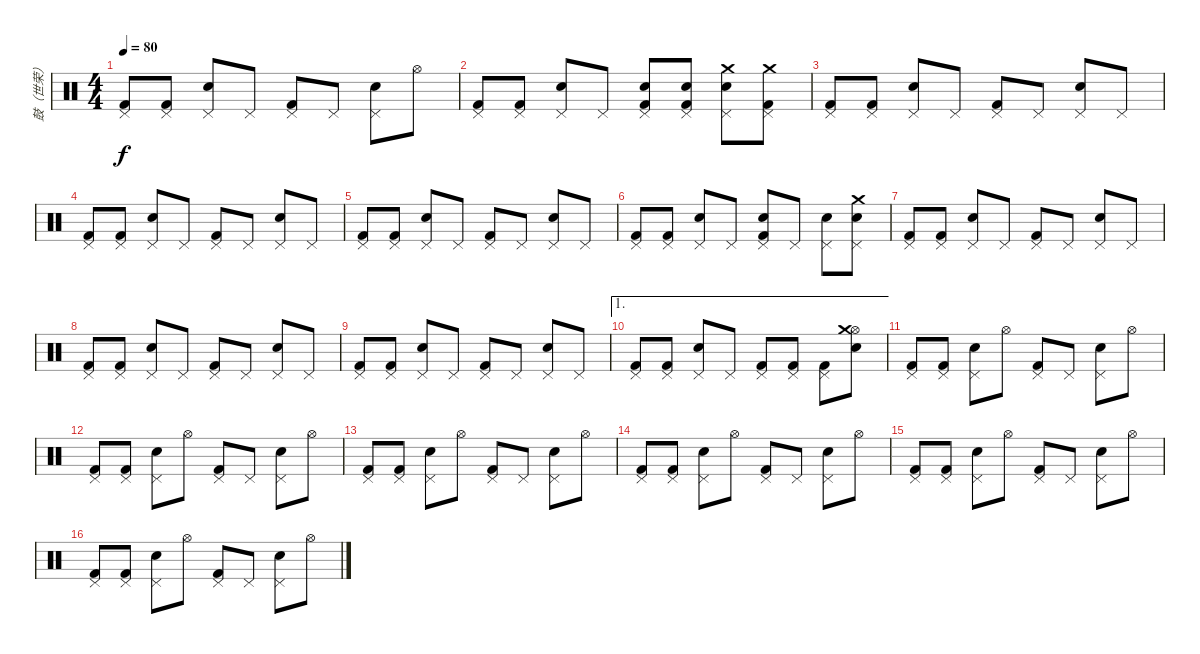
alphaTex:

\track ("鼓（世荣）" "鼓（世荣）") {instrument percussion}
\staff {score}
\articulation defaults
\ts (4 4)
\tempo 80
\clef neutral
\ks c
("Pedal Hi-Hat (hit)" "Kick (hit) 2").8{dy f} ("Pedal Hi-Hat (hit)" "Kick (hit) 2").8 ("Pedal Hi-Hat (hit)" "Snare (hit) 2").8 "Pedal Hi-Hat (hit)".8 ("Pedal Hi-Hat (hit)" "Kick (hit) 2").8 "Pedal Hi-Hat (hit)".8 ("Pedal Hi-Hat (hit)" "Snare (hit) 2").8 "Hi-Hat (open)".8 |
("Pedal Hi-Hat (hit)" "Kick (hit) 2").8 ("Pedal Hi-Hat (hit)" "Kick (hit) 2").8 ("Pedal Hi-Hat (hit)" "Snare (hit) 2").8 "Pedal Hi-Hat (hit)".8 ("Pedal Hi-Hat (hit)" "Kick (hit) 2" "Snare (hit) 2").8 ("Pedal Hi-Hat (hit)" "Kick (hit) 2" "Snare (hit) 2").8 ("Pedal Hi-Hat (hit)" "Crash medium (hit)" "Snare (hit) 2").8 ("Pedal Hi-Hat (hit)" "Crash medium (hit)" "Kick (hit) 2").8 |
("Pedal Hi-Hat (hit)" "Kick (hit) 2").8 ("Pedal Hi-Hat (hit)" "Kick (hit) 2").8 ("Pedal Hi-Hat (hit)" "Snare (hit) 2").8 "Pedal Hi-Hat (hit)".8 ("Pedal Hi-Hat (hit)" "Kick (hit) 2").8 "Pedal Hi-Hat (hit)".8 ("Pedal Hi-Hat (hit)" "Snare (hit) 2").8 "Pedal Hi-Hat (hit)".8 |
("Pedal Hi-Hat (hit)" "Kick (hit) 2").8 ("Pedal Hi-Hat (hit)" "Kick (hit) 2").8 ("Pedal Hi-Hat (hit)" "Snare (hit) 2").8 "Pedal Hi-Hat (hit)".8 ("Pedal Hi-Hat (hit)" "Kick (hit) 2").8 "Pedal Hi-Hat (hit)".8 ("Pedal Hi-Hat (hit)" "Snare (hit) 2").8 "Pedal Hi-Hat (hit)".8 |
("Pedal Hi-Hat (hit)" "Kick (hit) 2").8 ("Pedal Hi-Hat (hit)" "Kick (hit) 2").8 ("Pedal Hi-Hat (hit)" "Snare (hit) 2").8 "Pedal Hi-Hat (hit)".8 ("Pedal Hi-Hat (hit)" "Kick (hit) 2").8 "Pedal Hi-Hat (hit)".8 ("Pedal Hi-Hat (hit)" "Snare (hit) 2").8 "Pedal Hi-Hat (hit)".8 |
("Pedal Hi-Hat (hit)" "Kick (hit) 2").8 ("Pedal Hi-Hat (hit)" "Kick (hit) 2").8 ("Pedal Hi-Hat (hit)" "Snare (hit) 2").8 "Pedal Hi-Hat (hit)".8 ("Pedal Hi-Hat (hit)" "Kick (hit) 2" "Snare (hit) 2").8 "Pedal Hi-Hat (hit)".8 ("Pedal Hi-Hat (hit)" "Snare (hit) 2").8 ("Pedal Hi-Hat (hit)" "Crash medium (hit)" "Snare (hit) 2").8 |
("Pedal Hi-Hat (hit)" "Kick (hit) 2").8 ("Pedal Hi-Hat (hit)" "Kick (hit) 2").8 ("Pedal Hi-Hat (hit)" "Snare (hit) 2").8 "Pedal Hi-Hat (hit)".8 ("Pedal Hi-Hat (hit)" "Kick (hit) 2").8 "Pedal Hi-Hat (hit)".8 ("Pedal Hi-Hat (hit)" "Snare (hit) 2").8 "Pedal Hi-Hat (hit)".8 |
("Pedal Hi-Hat (hit)" "Kick (hit) 2").8 ("Pedal Hi-Hat (hit)" "Kick (hit) 2").8 ("Pedal Hi-Hat (hit)" "Snare (hit) 2").8 "Pedal Hi-Hat (hit)".8 ("Pedal Hi-Hat (hit)" "Kick (hit) 2").8 "Pedal Hi-Hat (hit)".8 ("Pedal Hi-Hat (hit)" "Snare (hit) 2").8 "Pedal Hi-Hat (hit)".8 |
("Pedal Hi-Hat (hit)" "Kick (hit) 2").8 ("Pedal Hi-Hat (hit)" "Kick (hit) 2").8 ("Pedal Hi-Hat (hit)" "Snare (hit) 2").8 "Pedal Hi-Hat (hit)".8 ("Pedal Hi-Hat (hit)" "Kick (hit) 2").8 "Pedal Hi-Hat (hit)".8 ("Pedal Hi-Hat (hit)" "Snare (hit) 2").8 "Pedal Hi-Hat (hit)".8 |
\ae 1
("Pedal Hi-Hat (hit)" "Kick (hit) 2").8 ("Pedal Hi-Hat (hit)" "Kick (hit) 2").8 ("Pedal Hi-Hat (hit)" "Snare (hit) 2").8 "Pedal Hi-Hat (hit)".8 ("Pedal Hi-Hat (hit)" "Kick (hit) 2").8 ("Pedal Hi-Hat (hit)" "Kick (hit) 2").8 ("Pedal Hi-Hat (hit)" "Kick (hit) 2").8 ("Hi-Hat (open)" "Crash medium (hit)" "Snare (hit) 2").8 |
("Pedal Hi-Hat (hit)" "Kick (hit) 2").8 ("Pedal Hi-Hat (hit)" "Kick (hit) 2").8 ("Pedal Hi-Hat (hit)" "Snare (hit) 2").8 "Hi-Hat (open)".8 ("Pedal Hi-Hat (hit)" "Kick (hit) 2").8 "Pedal Hi-Hat (hit)".8 ("Pedal Hi-Hat (hit)" "Snare (hit) 2").8 "Hi-Hat (open)".8 |
("Pedal Hi-Hat (hit)" "Kick (hit) 2").8 ("Pedal Hi-Hat (hit)" "Kick (hit) 2").8 ("Pedal Hi-Hat (hit)" "Snare (hit) 2").8 "Hi-Hat (open)".8 ("Pedal Hi-Hat (hit)" "Kick (hit) 2").8 "Pedal Hi-Hat (hit)".8 ("Pedal Hi-Hat (hit)" "Snare (hit) 2").8 "Hi-Hat (open)".8 |
("Pedal Hi-Hat (hit)" "Kick (hit) 2").8 ("Pedal Hi-Hat (hit)" "Kick (hit) 2").8 ("Pedal Hi-Hat (hit)" "Snare (hit) 2").8 "Hi-Hat (open)".8 ("Pedal Hi-Hat (hit)" "Kick (hit) 2").8 "Pedal Hi-Hat (hit)".8 ("Pedal Hi-Hat (hit)" "Snare (hit) 2").8 "Hi-Hat (open)".8 |
("Pedal Hi-Hat (hit)" "Kick (hit) 2").8 ("Pedal Hi-Hat (hit)" "Kick (hit) 2").8 ("Pedal Hi-Hat (hit)" "Snare (hit) 2").8 "Hi-Hat (open)".8 ("Pedal Hi-Hat (hit)" "Kick (hit) 2").8 "Pedal Hi-Hat (hit)".8 ("Pedal Hi-Hat (hit)" "Snare (hit) 2").8 "Hi-Hat (open)".8 |
("Pedal Hi-Hat (hit)" "Kick (hit) 2").8 ("Pedal Hi-Hat (hit)" "Kick (hit) 2").8 ("Pedal Hi-Hat (hit)" "Snare (hit) 2").8 "Hi-Hat (open)".8 ("Pedal Hi-Hat (hit)" "Kick (hit) 2").8 "Pedal Hi-Hat (hit)".8 ("Pedal Hi-Hat (hit)" "Snare (hit) 2").8 "Hi-Hat (open)".8 |
("Pedal Hi-Hat (hit)" "Kick (hit) 2").8 ("Pedal Hi-Hat (hit)" "Kick (hit) 2").8 ("Pedal Hi-Hat (hit)" "Snare (hit) 2").8 "Hi-Hat (open)".8 ("Pedal Hi-Hat (hit)" "Kick (hit) 2").8 "Pedal Hi-Hat (hit)".8 ("Pedal Hi-Hat (hit)" "Snare (hit) 2").8 "Hi-Hat (open)".8
